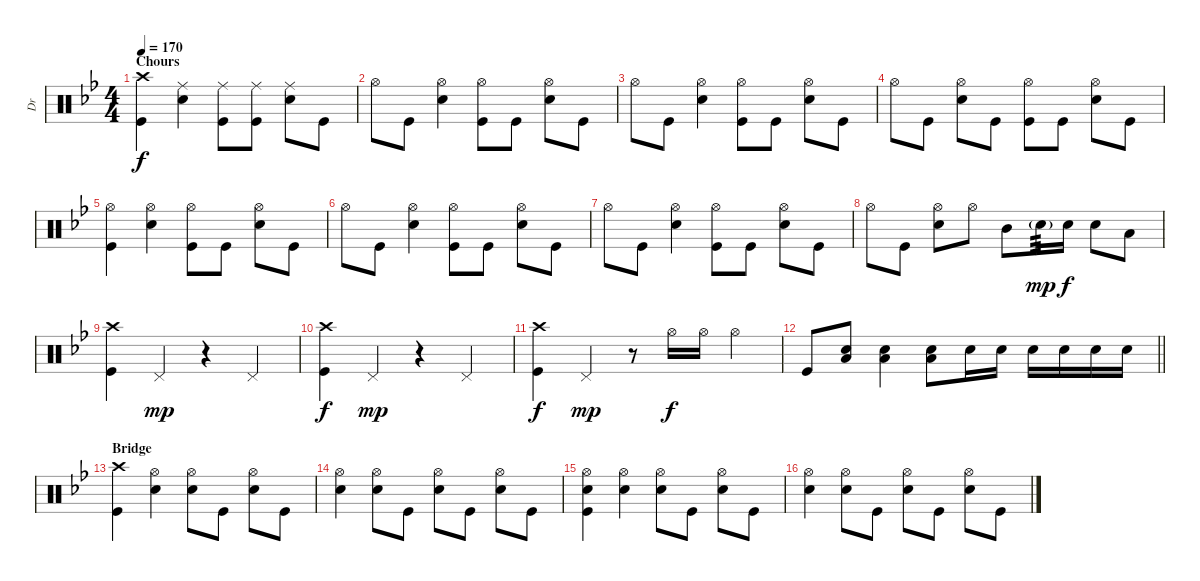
\track ("Dr" "Dr") {instrument percussion}
\staff {score}
\articulation defaults
\ts (4 4)
\section ("" "Chours")
\tempo 170
\clef neutral
\ks bb
("Crash high (hit)" "Kick (hit)").4{dy f} ("Ride (middle)" "Electric Snare (hit)").4 ("Ride (middle)" "Kick (hit)").8 ("Ride (middle)" "Kick (hit)").8 ("Ride (middle)" "Electric Snare (hit)").8 "Kick (hit)".8 |
"Hi-Hat (open)".8 "Kick (hit)".8 ("Hi-Hat (open)" "Electric Snare (hit)").4 ("Hi-Hat (open)" "Kick (hit)").8 "Kick (hit)".8 ("Hi-Hat (open)" "Electric Snare (hit)").8 "Kick (hit)".8 |
"Hi-Hat (open)".8 "Kick (hit)".8 ("Hi-Hat (open)" "Electric Snare (hit)").4 ("Hi-Hat (open)" "Kick (hit)").8 "Kick (hit)".8 ("Hi-Hat (open)" "Electric Snare (hit)").8 "Kick (hit)".8 |
"Hi-Hat (open)".8 "Kick (hit)".8 ("Hi-Hat (open)" "Electric Snare (hit)").8 "Kick (hit)".8 ("Hi-Hat (open)" "Kick (hit)").8 "Kick (hit)".8 ("Hi-Hat (open)" "Electric Snare (hit)").8 "Kick (hit)".8 |
("Hi-Hat (open)" "Kick (hit)").4 ("Hi-Hat (open)" "Electric Snare (hit)").4 ("Hi-Hat (open)" "Kick (hit)").8 "Kick (hit)".8 ("Hi-Hat (open)" "Electric Snare (hit)").8 "Kick (hit)".8 |
"Hi-Hat (open)".8 "Kick (hit)".8 ("Hi-Hat (open)" "Electric Snare (hit)").4 ("Hi-Hat (open)" "Kick (hit)").8 "Kick (hit)".8 ("Hi-Hat (open)" "Electric Snare (hit)").8 "Kick (hit)".8 |
"Hi-Hat (open)".8 "Kick (hit)".8 ("Hi-Hat (open)" "Electric Snare (hit)").4 ("Hi-Hat (open)" "Kick (hit)").8 "Kick (hit)".8 ("Hi-Hat (open)" "Electric Snare (hit)").8 "Kick (hit)".8 |
"Hi-Hat (open)".8 "Kick (hit)".8 ("Hi-Hat (open)" "Electric Snare (hit)").8 "Hi-Hat (open)".8 "Mid Tom (hit)".8 "Electric Snare (hit)"{g}.16{tp 3 dy mp} "Electric Snare (hit)".16{dy f} "Electric Snare (hit)".8 "Low Floor Tom (hit)".8 |
("Crash high (hit)" "Kick (hit)").4 "Pedal Hi-Hat (hit)".4{dy mp} r.4 "Pedal Hi-Hat (hit)".4 |
("Crash high (hit)" "Kick (hit)").4{dy f} "Pedal Hi-Hat (hit)".4{dy mp} r.4 "Pedal Hi-Hat (hit)".4 |
("Crash high (hit)" "Kick (hit)").4{dy f} "Pedal Hi-Hat (hit)".4{dy mp} r.8 "Hi-Hat (open)".16{dy f} "Hi-Hat (open)".16 "Hi-Hat (open)".4 |
\barLineRight lightlight "Kick (hit)".8
("Electric Snare (hit)" "Low Floor Tom (hit)").8 ("Electric Snare (hit)" "Low Floor Tom (hit)").4 ("Electric Snare (hit)" "Low Floor Tom (hit)").8 "Electric Snare (hit)".16 "Electric Snare (hit)".16 "Electric Snare (hit)".16 "Electric Snare (hit)".16 "Electric Snare (hit)".16 "Electric Snare (hit)".16 |
\section ("" "Bridge")
("Crash high (hit)" "Kick (hit)").4 ("Electric Snare (hit)" "Hi-Hat (open)").4 ("Electric Snare (hit)" "Hi-Hat (open)").8 "Kick (hit)".8 ("Electric Snare (hit)" "Hi-Hat (open)").8 "Kick (hit)".8 |
("Hi-Hat (open)" "Electric Snare (hit)").4 ("Hi-Hat (open)" "Electric Snare (hit)").8 "Kick (hit)".8 ("Hi-Hat (open)" "Electric Snare (hit)").8 "Kick (hit)".8 ("Hi-Hat (open)" "Electric Snare (hit)").8 "Kick (hit)".8 |
("Hi-Hat (open)" "Electric Snare (hit)" "Kick (hit)").4 ("Electric Snare (hit)" "Hi-Hat (open)").4 ("Electric Snare (hit)" "Hi-Hat (open)").8 "Kick (hit)".8 ("Electric Snare (hit)" "Hi-Hat (open)").8 "Kick (hit)".8 |
("Hi-Hat (open)" "Electric Snare (hit)").4 ("Hi-Hat (open)" "Electric Snare (hit)").8 "Kick (hit)".8 ("Hi-Hat (open)" "Electric Snare (hit)").8 "Kick (hit)".8 ("Hi-Hat (open)" "Electric Snare (hit)").8 "Kick (hit)".8
